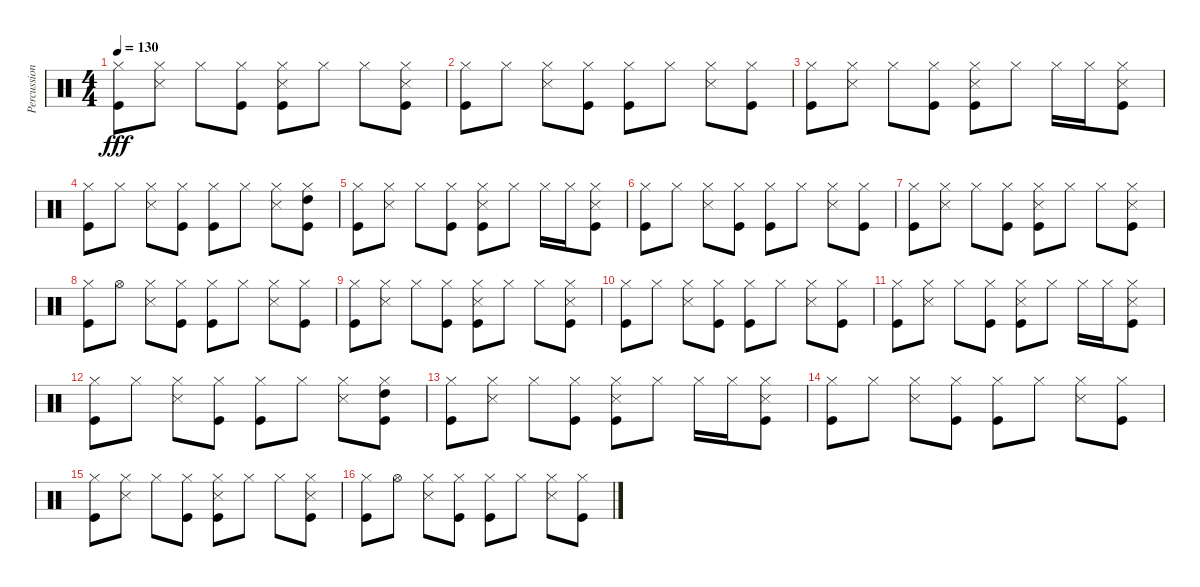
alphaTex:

\track ("Percussions 2" "Percussion") {instrument percussion}
\staff {score}
\articulation defaults
\ts (4 4)
\tempo 130
\clef neutral
\ks c
("Kick (hit)" "Hi-Hat (closed)").8{dy fff} ("Snare (side stick) 3" "Hi-Hat (closed)").8 "Hi-Hat (closed)".8 ("Kick (hit)" "Hi-Hat (closed)").8 ("Kick (hit)" "Snare (side stick) 3" "Hi-Hat (closed)").8 "Hi-Hat (closed)".8 "Hi-Hat (closed)".8 ("Kick (hit)" "Snare (side stick) 3" "Hi-Hat (closed)").8 |
("Kick (hit)" "Hi-Hat (closed)").8 "Hi-Hat (closed)".8 ("Snare (side stick) 3" "Hi-Hat (closed)").8 ("Kick (hit)" "Hi-Hat (closed)").8 ("Kick (hit)" "Hi-Hat (closed)").8 "Hi-Hat (closed)".8 ("Snare (side stick) 3" "Hi-Hat (closed)").8 ("Kick (hit)" "Hi-Hat (closed)").8 |
("Kick (hit)" "Hi-Hat (closed)").8 ("Snare (side stick) 3" "Hi-Hat (closed)").8 "Hi-Hat (closed)".8 ("Kick (hit)" "Hi-Hat (closed)").8 ("Kick (hit)" "Snare (side stick) 3" "Hi-Hat (closed)").8 "Hi-Hat (closed)".8 "Hi-Hat (closed)".16 "Hi-Hat (closed)".16 ("Kick (hit)" "Snare (side stick) 3" "Hi-Hat (closed)").8 |
("Kick (hit)" "Hi-Hat (closed)").8 "Hi-Hat (closed)".8 ("Snare (side stick) 3" "Hi-Hat (closed)").8 ("Kick (hit)" "Hi-Hat (closed)").8 ("Kick (hit)" "Hi-Hat (closed)").8 "Hi-Hat (closed)".8 ("Snare (side stick) 3" "Hi-Hat (closed)").8 ("Kick (hit)" "Hi-Hat (closed)" "High Tom (hit)").8 |
("Kick (hit)" "Hi-Hat (closed)").8 ("Snare (side stick) 3" "Hi-Hat (closed)").8 "Hi-Hat (closed)".8 ("Kick (hit)" "Hi-Hat (closed)").8 ("Kick (hit)" "Snare (side stick) 3" "Hi-Hat (closed)").8 "Hi-Hat (closed)".8 "Hi-Hat (closed)".16 "Hi-Hat (closed)".16 ("Kick (hit)" "Snare (side stick) 3" "Hi-Hat (closed)").8 |
("Kick (hit)" "Hi-Hat (closed)").8 "Hi-Hat (closed)".8 ("Snare (side stick) 3" "Hi-Hat (closed)").8 ("Kick (hit)" "Hi-Hat (closed)").8 ("Kick (hit)" "Hi-Hat (closed)").8 "Hi-Hat (closed)".8 ("Snare (side stick) 3" "Hi-Hat (closed)").8 ("Kick (hit)" "Hi-Hat (closed)").8 |
("Kick (hit)" "Hi-Hat (closed)").8 ("Snare (side stick) 3" "Hi-Hat (closed)").8 "Hi-Hat (closed)".8 ("Kick (hit)" "Hi-Hat (closed)").8 ("Kick (hit)" "Snare (side stick) 3" "Hi-Hat (closed)").8 "Hi-Hat (closed)".8 "Hi-Hat (closed)".8 ("Kick (hit)" "Snare (side stick) 3" "Hi-Hat (closed)").8 |
("Kick (hit)" "Hi-Hat (closed)").8 "Hi-Hat (open)".8 ("Snare (side stick) 3" "Hi-Hat (closed)").8 ("Kick (hit)" "Hi-Hat (closed)").8 ("Kick (hit)" "Hi-Hat (closed)").8 "Hi-Hat (closed)".8 ("Snare (side stick) 3" "Hi-Hat (closed)").8 ("Kick (hit)" "Hi-Hat (closed)").8 |
("Kick (hit)" "Hi-Hat (closed)").8 ("Snare (side stick) 3" "Hi-Hat (closed)").8 "Hi-Hat (closed)".8 ("Kick (hit)" "Hi-Hat (closed)").8 ("Kick (hit)" "Snare (side stick) 3" "Hi-Hat (closed)").8 "Hi-Hat (closed)".8 "Hi-Hat (closed)".8 ("Kick (hit)" "Snare (side stick) 3" "Hi-Hat (closed)").8 |
("Kick (hit)" "Hi-Hat (closed)").8 "Hi-Hat (closed)".8 ("Snare (side stick) 3" "Hi-Hat (closed)").8 ("Kick (hit)" "Hi-Hat (closed)").8 ("Kick (hit)" "Hi-Hat (closed)").8 "Hi-Hat (closed)".8 ("Snare (side stick) 3" "Hi-Hat (closed)").8 ("Kick (hit)" "Hi-Hat (closed)").8 |
("Kick (hit)" "Hi-Hat (closed)").8 ("Snare (side stick) 3" "Hi-Hat (closed)").8 "Hi-Hat (closed)".8 ("Kick (hit)" "Hi-Hat (closed)").8 ("Kick (hit)" "Snare (side stick) 3" "Hi-Hat (closed)").8 "Hi-Hat (closed)".8 "Hi-Hat (closed)".16 "Hi-Hat (closed)".16 ("Kick (hit)" "Snare (side stick) 3" "Hi-Hat (closed)").8 |
("Kick (hit)" "Hi-Hat (closed)").8 "Hi-Hat (closed)".8 ("Snare (side stick) 3" "Hi-Hat (closed)").8 ("Kick (hit)" "Hi-Hat (closed)").8 ("Kick (hit)" "Hi-Hat (closed)").8 "Hi-Hat (closed)".8 ("Snare (side stick) 3" "Hi-Hat (closed)").8 ("Kick (hit)" "Hi-Hat (closed)" "High Tom (hit)").8 |
("Kick (hit)" "Hi-Hat (closed)").8 ("Snare (side stick) 3" "Hi-Hat (closed)").8 "Hi-Hat (closed)".8 ("Kick (hit)" "Hi-Hat (closed)").8 ("Kick (hit)" "Snare (side stick) 3" "Hi-Hat (closed)").8 "Hi-Hat (closed)".8 "Hi-Hat (closed)".16 "Hi-Hat (closed)".16 ("Kick (hit)" "Snare (side stick) 3" "Hi-Hat (closed)").8 |
("Kick (hit)" "Hi-Hat (closed)").8 "Hi-Hat (closed)".8 ("Snare (side stick) 3" "Hi-Hat (closed)").8 ("Kick (hit)" "Hi-Hat (closed)").8 ("Kick (hit)" "Hi-Hat (closed)").8 "Hi-Hat (closed)".8 ("Snare (side stick) 3" "Hi-Hat (closed)").8 ("Kick (hit)" "Hi-Hat (closed)").8 |
("Kick (hit)" "Hi-Hat (closed)").8 ("Snare (side stick) 3" "Hi-Hat (closed)").8 "Hi-Hat (closed)".8 ("Kick (hit)" "Hi-Hat (closed)").8 ("Kick (hit)" "Snare (side stick) 3" "Hi-Hat (closed)").8 "Hi-Hat (closed)".8 "Hi-Hat (closed)".8 ("Kick (hit)" "Snare (side stick) 3" "Hi-Hat (closed)").8 |
("Kick (hit)" "Hi-Hat (closed)").8 "Hi-Hat (open)".8 ("Snare (side stick) 3" "Hi-Hat (closed)").8 ("Kick (hit)" "Hi-Hat (closed)").8 ("Kick (hit)" "Hi-Hat (closed)").8 "Hi-Hat (closed)".8 ("Snare (side stick) 3" "Hi-Hat (closed)").8 ("Kick (hit)" "Hi-Hat (closed)").8
